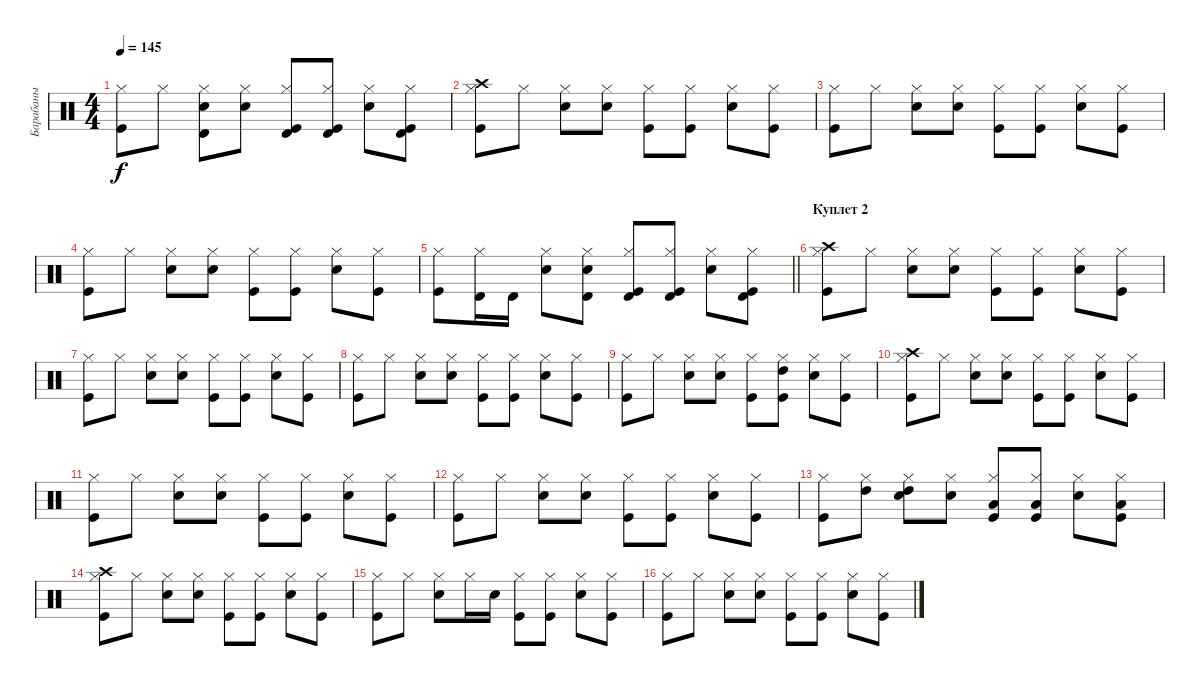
\track ("Барабаны" "Барабаны") {instrument percussion}
\staff {score}
\articulation defaults
\ts (4 4)
\tempo 145
\clef neutral
\ks c
("Kick (hit)" "Hi-Hat (closed)").8{dy f} "Hi-Hat (closed)".8 ("Snare (hit) 2" "Hi-Hat (closed)" "Timbale high (hit)").8 ("Snare (hit) 2" "Hi-Hat (closed)").8 ("Kick (hit)" "Hi-Hat (closed)" "Timbale high (hit)").8 ("Kick (hit)" "Hi-Hat (closed)" "Timbale high (hit)").8 ("Snare (hit) 2" "Hi-Hat (closed)").8 ("Kick (hit)" "Hi-Hat (closed)" "Timbale high (hit)").8 |
("Kick (hit)" "Hi-Hat (closed)" "Crash high (hit)").8 "Hi-Hat (closed)".8 ("Snare (hit) 2" "Hi-Hat (closed)").8 ("Snare (hit) 2" "Hi-Hat (closed)").8 ("Kick (hit)" "Hi-Hat (closed)").8 ("Kick (hit)" "Hi-Hat (closed)").8 ("Snare (hit) 2" "Hi-Hat (closed)").8 ("Kick (hit)" "Hi-Hat (closed)").8 |
("Kick (hit)" "Hi-Hat (closed)").8 "Hi-Hat (closed)".8 ("Snare (hit) 2" "Hi-Hat (closed)").8 ("Snare (hit) 2" "Hi-Hat (closed)").8 ("Kick (hit)" "Hi-Hat (closed)").8 ("Kick (hit)" "Hi-Hat (closed)").8 ("Snare (hit) 2" "Hi-Hat (closed)").8 ("Kick (hit)" "Hi-Hat (closed)").8 |
("Kick (hit)" "Hi-Hat (closed)").8 "Hi-Hat (closed)".8 ("Snare (hit) 2" "Hi-Hat (closed)").8 ("Snare (hit) 2" "Hi-Hat (closed)").8 ("Kick (hit)" "Hi-Hat (closed)").8 ("Kick (hit)" "Hi-Hat (closed)").8 ("Snare (hit) 2" "Hi-Hat (closed)").8 ("Kick (hit)" "Hi-Hat (closed)").8 |
\barLineRight lightlight
("Kick (hit)" "Hi-Hat (closed)").8 ("Hi-Hat (closed)" "Timbale high (hit)").16 "Timbale high (hit)".16 ("Snare (hit) 2" "Hi-Hat (closed)").8 ("Snare (hit) 2" "Hi-Hat (closed)" "Timbale high (hit)").8 ("Kick (hit)" "Hi-Hat (closed)" "Timbale high (hit)").8 ("Kick (hit)" "Hi-Hat (closed)" "Timbale high (hit)").8 ("Snare (hit) 2" "Hi-Hat (closed)").8 ("Kick (hit)" "Hi-Hat (closed)" "Timbale high (hit)").8 |
\section ("" "Куплет 2")
("Kick (hit)" "Hi-Hat (closed)" "Crash high (hit)").8 "Hi-Hat (closed)".8 ("Snare (hit) 2" "Hi-Hat (closed)").8 ("Snare (hit) 2" "Hi-Hat (closed)").8 ("Kick (hit)" "Hi-Hat (closed)").8 ("Kick (hit)" "Hi-Hat (closed)").8 ("Snare (hit) 2" "Hi-Hat (closed)").8 ("Kick (hit)" "Hi-Hat (closed)").8 |
("Kick (hit)" "Hi-Hat (closed)").8 "Hi-Hat (closed)".8 ("Snare (hit) 2" "Hi-Hat (closed)").8 ("Snare (hit) 2" "Hi-Hat (closed)").8 ("Kick (hit)" "Hi-Hat (closed)").8 ("Kick (hit)" "Hi-Hat (closed)").8 ("Snare (hit) 2" "Hi-Hat (closed)").8 ("Kick (hit)" "Hi-Hat (closed)").8 |
("Kick (hit)" "Hi-Hat (closed)").8 "Hi-Hat (closed)".8 ("Snare (hit) 2" "Hi-Hat (closed)").8 ("Snare (hit) 2" "Hi-Hat (closed)").8 ("Kick (hit)" "Hi-Hat (closed)").8 ("Kick (hit)" "Hi-Hat (closed)").8 ("Snare (hit) 2" "Hi-Hat (closed)").8 ("Kick (hit)" "Hi-Hat (closed)").8 |
("Kick (hit)" "Hi-Hat (closed)").8 "Hi-Hat (closed)".8 ("Snare (hit) 2" "Hi-Hat (closed)").8 ("Snare (hit) 2" "Hi-Hat (closed)").8 ("Kick (hit)" "Hi-Hat (closed)").8 ("Kick (hit)" "Hi-Hat (closed)" "High Tom (hit)").8 ("Snare (hit) 2" "Hi-Hat (closed)").8 ("Kick (hit)" "Hi-Hat (closed)").8 |
("Kick (hit)" "Hi-Hat (closed)" "Crash high (hit)").8 "Hi-Hat (closed)".8 ("Snare (hit) 2" "Hi-Hat (closed)").8 ("Snare (hit) 2" "Hi-Hat (closed)").8 ("Kick (hit)" "Hi-Hat (closed)").8 ("Kick (hit)" "Hi-Hat (closed)").8 ("Snare (hit) 2" "Hi-Hat (closed)").8 ("Kick (hit)" "Hi-Hat (closed)").8 |
("Kick (hit)" "Hi-Hat (closed)").8 "Hi-Hat (closed)".8 ("Snare (hit) 2" "Hi-Hat (closed)").8 ("Snare (hit) 2" "Hi-Hat (closed)").8 ("Kick (hit)" "Hi-Hat (closed)").8 ("Kick (hit)" "Hi-Hat (closed)").8 ("Snare (hit) 2" "Hi-Hat (closed)").8 ("Kick (hit)" "Hi-Hat (closed)").8 |
("Kick (hit)" "Hi-Hat (closed)").8 "Hi-Hat (closed)".8 ("Snare (hit) 2" "Hi-Hat (closed)").8 ("Snare (hit) 2" "Hi-Hat (closed)").8 ("Kick (hit)" "Hi-Hat (closed)").8 ("Kick (hit)" "Hi-Hat (closed)").8 ("Snare (hit) 2" "Hi-Hat (closed)").8 ("Kick (hit)" "Hi-Hat (closed)").8 |
("Kick (hit)" "Hi-Hat (closed)").8 ("Hi-Hat (closed)" "High Tom (hit)").8 ("Snare (hit) 2" "Hi-Hat (closed)" "High Tom (hit)").8 ("Snare (hit) 2" "Hi-Hat (closed)").8 ("Kick (hit)" "Hi-Hat (closed)" "Low Floor Tom (hit)").8 ("Kick (hit)" "Hi-Hat (closed)" "Low Floor Tom (hit)").8 ("Snare (hit) 2" "Hi-Hat (closed)").8 ("Kick (hit)" "Hi-Hat (closed)" "Low Floor Tom (hit)").8 |
("Kick (hit)" "Hi-Hat (closed)" "Crash high (hit)").8 "Hi-Hat (closed)".8 ("Snare (hit) 2" "Hi-Hat (closed)").8 ("Snare (hit) 2" "Hi-Hat (closed)").8 ("Kick (hit)" "Hi-Hat (closed)").8 ("Kick (hit)" "Hi-Hat (closed)").8 ("Snare (hit) 2" "Hi-Hat (closed)").8 ("Kick (hit)" "Hi-Hat (closed)").8 |
("Kick (hit)" "Hi-Hat (closed)").8 "Hi-Hat (closed)".8 ("Snare (hit) 2" "Hi-Hat (closed)").8 "Hi-Hat (closed)".16 "Snare (hit) 2".16 ("Kick (hit)" "Hi-Hat (closed)").8 ("Kick (hit)" "Hi-Hat (closed)").8 ("Snare (hit) 2" "Hi-Hat (closed)").8 ("Kick (hit)" "Hi-Hat (closed)").8 |
("Kick (hit)" "Hi-Hat (closed)").8 "Hi-Hat (closed)".8 ("Snare (hit) 2" "Hi-Hat (closed)").8 ("Snare (hit) 2" "Hi-Hat (closed)").8 ("Kick (hit)" "Hi-Hat (closed)").8 ("Kick (hit)" "Hi-Hat (closed)").8 ("Snare (hit) 2" "Hi-Hat (closed)").8 ("Kick (hit)" "Hi-Hat (closed)").8
